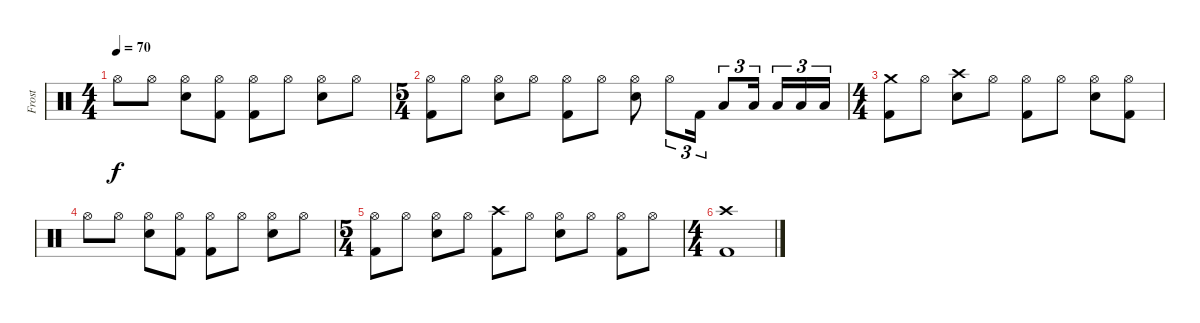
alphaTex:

\track ("Frost" "Frost") {instrument percussion}
\staff {score}
\articulation defaults
\ts (4 4)
\tempo 70
\clef neutral
\ks c "Hi-Hat (open)".8{dy f} "Hi-Hat (open)".8
("Hi-Hat (open)" "Electric Snare (hit)").8 ("Hi-Hat (open)" "Kick (hit) 2").8 ("Hi-Hat (open)" "Kick (hit) 2").8 "Hi-Hat (open)".8 ("Hi-Hat (open)" "Electric Snare (hit)").8 "Hi-Hat (open)".8 |
\ts (5 4)
("Hi-Hat (open)" "Kick (hit) 2").8 "Hi-Hat (open)".8 ("Hi-Hat (open)" "Electric Snare (hit)").8 "Hi-Hat (open)".8 ("Hi-Hat (open)" "Kick (hit) 2").8 "Hi-Hat (open)".8 ("Hi-Hat (open)" "Electric Snare (hit)").8 "Hi-Hat (open)".8{tu (3 2)} "Kick (hit) 2".16{tu (3 2)} "Low Tom (hit)".8{tu (3 2)} "Low Tom (hit)".16{tu (3 2) beam splitsecondary} "Low Tom (hit)".16{tu (3 2)} "Low Tom (hit)".16{tu (3 2)} "Low Tom (hit)".16{tu (3 2)} |
\ts (4 4)
("Crash medium (hit)" "Kick (hit) 2").8 "Hi-Hat (open)".8 ("Crash high (hit)" "Electric Snare (hit)").8 "Hi-Hat (open)".8 ("Hi-Hat (open)" "Kick (hit) 2").8 "Hi-Hat (open)".8 ("Hi-Hat (open)" "Electric Snare (hit)").8 ("Hi-Hat (open)" "Kick (hit) 2").8 |
"Hi-Hat (open)".8 "Hi-Hat (open)".8 ("Hi-Hat (open)" "Electric Snare (hit)").8 ("Hi-Hat (open)" "Kick (hit) 2").8 ("Hi-Hat (open)" "Kick (hit) 2").8 "Hi-Hat (open)".8 ("Hi-Hat (open)" "Electric Snare (hit)").8 "Hi-Hat (open)".8 |
\ts (5 4)
("Hi-Hat (open)" "Kick (hit) 2").8 "Hi-Hat (open)".8 ("Hi-Hat (open)" "Electric Snare (hit)").8 "Hi-Hat (open)".8 ("Crash high (hit)" "Kick (hit) 2").8 "Hi-Hat (open)".8 ("Hi-Hat (open)" "Electric Snare (hit)").8 "Hi-Hat (open)".8 ("Hi-Hat (open)" "Kick (hit) 2").8 "Hi-Hat (open)".8 |
\ts (4 4)
("Crash high (hit)" "Kick (hit) 2").1
